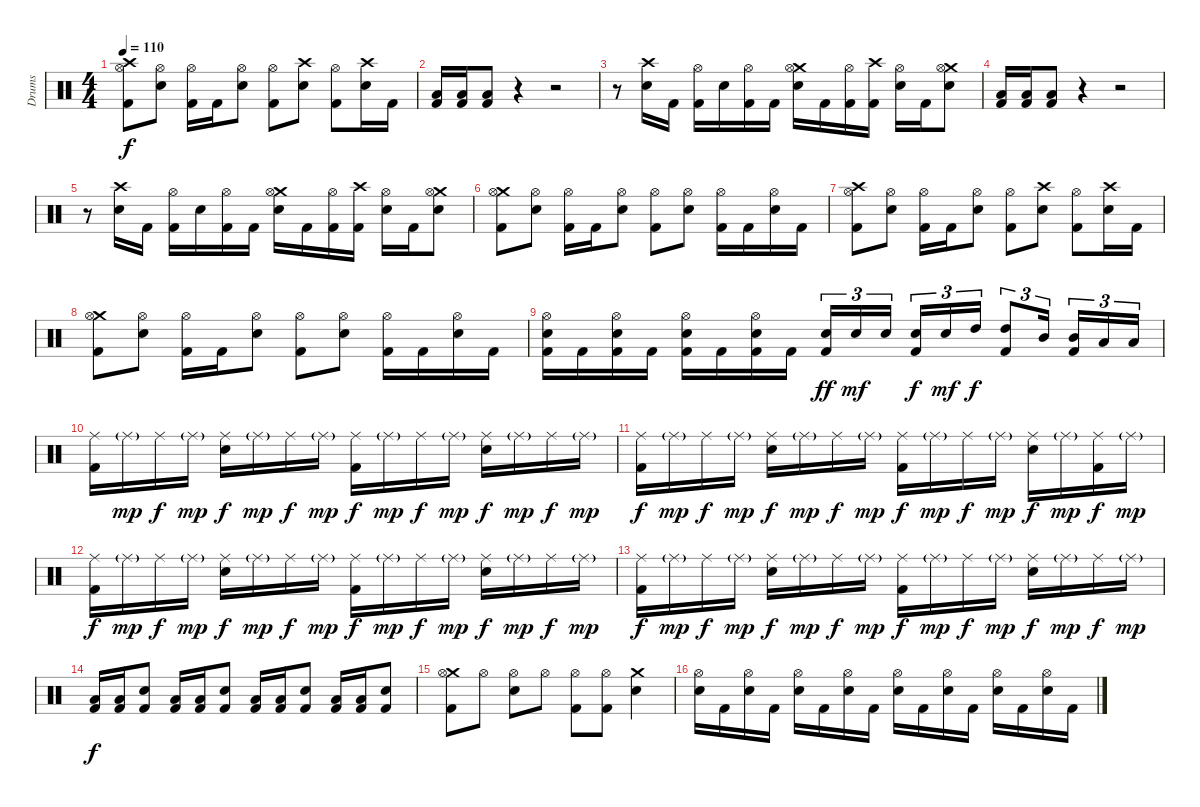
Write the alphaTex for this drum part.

\track ("Drums" "Drums") {instrument percussion}
\staff {score}
\articulation defaults
\ts (4 4)
\tempo 110
\clef neutral
\ks c
("Crash high (hit)" "Hi-Hat (open)" "Kick (hit) 2").8{dy f} ("Hi-Hat (open)" "Electric Snare (hit)").8 ("Hi-Hat (open)" "Kick (hit) 2").16 "Kick (hit) 2".16 ("Hi-Hat (open)" "Electric Snare (hit)").8 ("Hi-Hat (open)" "Kick (hit) 2").8 ("Crash high (hit)" "Electric Snare (hit)").8 ("Hi-Hat (open)" "Kick (hit) 2").8 ("Crash high (hit)" "Electric Snare (hit)").16 "Kick (hit) 2".16 |
("Low Tom (hit)" "Kick (hit) 2").16 ("Low Tom (hit)" "Kick (hit) 2").16 ("Low Tom (hit)" "Kick (hit) 2").8 r.4 r.2 |
r.8 ("Crash high (hit)" "Electric Snare (hit)").16 "Kick (hit) 2".16 ("Hi-Hat (open)" "Kick (hit) 2").16 "Electric Snare (hit)".16 ("Hi-Hat (open)" "Kick (hit) 2").16 "Kick (hit) 2".16 ("Crash medium (hit)" "Hi-Hat (open)" "Electric Snare (hit)").16 "Kick (hit) 2".16 ("Hi-Hat (open)" "Kick (hit) 2").16 ("Crash high (hit)" "Kick (hit) 2").16 ("Hi-Hat (open)" "Electric Snare (hit)").16 "Kick (hit) 2".16 ("Crash medium (hit)" "Hi-Hat (open)" "Electric Snare (hit)").8 |
("Low Tom (hit)" "Kick (hit) 2").16 ("Low Tom (hit)" "Kick (hit) 2").16 ("Low Tom (hit)" "Kick (hit) 2").8 r.4 r.2 |
r.8 ("Crash high (hit)" "Electric Snare (hit)").16 "Kick (hit) 2".16 ("Hi-Hat (open)" "Kick (hit) 2").16 "Electric Snare (hit)".16 ("Hi-Hat (open)" "Kick (hit) 2").16 "Kick (hit) 2".16 ("Crash medium (hit)" "Hi-Hat (open)" "Electric Snare (hit)").16 "Kick (hit) 2".16 ("Hi-Hat (open)" "Kick (hit) 2").16 ("Crash high (hit)" "Kick (hit) 2").16 ("Hi-Hat (open)" "Electric Snare (hit)").16 "Kick (hit) 2".16 ("Crash medium (hit)" "Hi-Hat (open)" "Electric Snare (hit)").8 |
("Crash medium (hit)" "Hi-Hat (open)" "Kick (hit) 2").8 ("Hi-Hat (open)" "Electric Snare (hit)").8 ("Hi-Hat (open)" "Kick (hit) 2").16 "Kick (hit) 2".16 ("Hi-Hat (open)" "Electric Snare (hit)").8 ("Hi-Hat (open)" "Kick (hit) 2").8 ("Hi-Hat (open)" "Electric Snare (hit)").8 ("Hi-Hat (open)" "Kick (hit) 2").16 "Kick (hit) 2".16 ("Hi-Hat (open)" "Electric Snare (hit)").16 "Kick (hit) 2".16 |
("Crash high (hit)" "Hi-Hat (open)" "Kick (hit) 2").8 ("Hi-Hat (open)" "Electric Snare (hit)").8 ("Hi-Hat (open)" "Kick (hit) 2").16 "Kick (hit) 2".16 ("Hi-Hat (open)" "Electric Snare (hit)").8 ("Hi-Hat (open)" "Kick (hit) 2").8 ("Crash high (hit)" "Electric Snare (hit)").8 ("Hi-Hat (open)" "Kick (hit) 2").8 ("Crash high (hit)" "Electric Snare (hit)").16 "Kick (hit) 2".16 |
("Crash medium (hit)" "Hi-Hat (open)" "Kick (hit) 2").8 ("Hi-Hat (open)" "Electric Snare (hit)").8 ("Hi-Hat (open)" "Kick (hit) 2").16 "Kick (hit) 2".16 ("Hi-Hat (open)" "Electric Snare (hit)").8 ("Hi-Hat (open)" "Kick (hit) 2").8 ("Hi-Hat (open)" "Electric Snare (hit)").8 ("Hi-Hat (open)" "Kick (hit) 2").16 "Kick (hit) 2".16 ("Hi-Hat (open)" "Electric Snare (hit)").16 "Kick (hit) 2".16 |
("Hi-Hat (open)" "Electric Snare (hit)" "Kick (hit) 2").16 "Kick (hit) 2".16 ("Hi-Hat (open)" "Electric Snare (hit)" "Kick (hit) 2").16 "Kick (hit) 2".16 ("Hi-Hat (open)" "Electric Snare (hit)" "Kick (hit) 2").16 "Kick (hit) 2".16 ("Hi-Hat (open)" "Electric Snare (hit)" "Kick (hit) 2").16 "Kick (hit) 2".16 ("Electric Snare (hit)" "Kick (hit) 2").16{tu (3 2) dy ff} "Electric Snare (hit)".16{tu (3 2) dy mf} "Electric Snare (hit)".16{tu (3 2)} ("Electric Snare (hit)" "Kick (hit) 2").16{tu (3 2) dy f} "Electric Snare (hit)".16{tu (3 2) dy mf} "High Tom (hit)".16{tu (3 2) dy f} ("High Tom (hit)" "Kick (hit) 2").8{tu (3 2)} "Mid Tom (hit)".16{tu (3 2)} ("Mid Tom (hit)" "Kick (hit) 2").16{tu (3 2)} "Low Tom (hit)".16{tu (3 2)} "Low Tom (hit)".16{tu (3 2)} |
("Ride (middle)" "Kick (hit) 2").16 "Ride (middle)"{g}.16{dy mp} "Ride (middle)".16{dy f} "Ride (middle)"{g}.16{dy mp} ("Ride (middle)" "Electric Snare (hit)").16{dy f} "Ride (middle)"{g}.16{dy mp} "Ride (middle)".16{dy f} "Ride (middle)"{g}.16{dy mp} ("Ride (middle)" "Kick (hit) 2").16{dy f} "Ride (middle)"{g}.16{dy mp} "Ride (middle)".16{dy f} "Ride (middle)"{g}.16{dy mp} ("Ride (middle)" "Electric Snare (hit)").16{dy f} "Ride (middle)"{g}.16{dy mp} "Ride (middle)".16{dy f} "Ride (middle)"{g}.16{dy mp} |
("Ride (middle)" "Kick (hit) 2").16{dy f} "Ride (middle)"{g}.16{dy mp} "Ride (middle)".16{dy f} "Ride (middle)"{g}.16{dy mp} ("Ride (middle)" "Electric Snare (hit)").16{dy f} "Ride (middle)"{g}.16{dy mp} "Ride (middle)".16{dy f} "Ride (middle)"{g}.16{dy mp} ("Ride (middle)" "Kick (hit) 2").16{dy f} "Ride (middle)"{g}.16{dy mp} "Ride (middle)".16{dy f} "Ride (middle)"{g}.16{dy mp} ("Ride (middle)" "Electric Snare (hit)").16{dy f} "Ride (middle)"{g}.16{dy mp} ("Ride (middle)" "Kick (hit) 2").16{dy f} "Ride (middle)"{g}.16{dy mp} |
("Ride (middle)" "Kick (hit) 2").16{dy f} "Ride (middle)"{g}.16{dy mp} "Ride (middle)".16{dy f} "Ride (middle)"{g}.16{dy mp} ("Ride (middle)" "Electric Snare (hit)").16{dy f} "Ride (middle)"{g}.16{dy mp} "Ride (middle)".16{dy f} "Ride (middle)"{g}.16{dy mp} ("Ride (middle)" "Kick (hit) 2").16{dy f} "Ride (middle)"{g}.16{dy mp} "Ride (middle)".16{dy f} "Ride (middle)"{g}.16{dy mp} ("Ride (middle)" "Electric Snare (hit)").16{dy f} "Ride (middle)"{g}.16{dy mp} "Ride (middle)".16{dy f} "Ride (middle)"{g}.16{dy mp} |
("Ride (middle)" "Kick (hit) 2").16{dy f} "Ride (middle)"{g}.16{dy mp} "Ride (middle)".16{dy f} "Ride (middle)"{g}.16{dy mp} ("Ride (middle)" "Electric Snare (hit)").16{dy f} "Ride (middle)"{g}.16{dy mp} "Ride (middle)".16{dy f} "Ride (middle)"{g}.16{dy mp} ("Ride (middle)" "Kick (hit) 2").16{dy f} "Ride (middle)"{g}.16{dy mp} "Ride (middle)".16{dy f} "Ride (middle)"{g}.16{dy mp} ("Ride (middle)" "Electric Snare (hit)").16{dy f} "Ride (middle)"{g}.16{dy mp} "Ride (middle)".16{dy f} "Ride (middle)"{g}.16{dy mp} |
("Low Floor Tom (hit)" "Kick (hit) 2").16{dy f} ("Low Floor Tom (hit)" "Kick (hit) 2").16 ("Electric Snare (hit)" "Kick (hit) 2").8 ("Low Floor Tom (hit)" "Kick (hit) 2").16 ("Low Floor Tom (hit)" "Kick (hit) 2").16 ("Electric Snare (hit)" "Kick (hit) 2").8 ("Low Floor Tom (hit)" "Kick (hit) 2").16 ("Low Floor Tom (hit)" "Kick (hit) 2").16 ("Electric Snare (hit)" "Kick (hit) 2").8 ("Low Floor Tom (hit)" "Kick (hit) 2").16 ("Low Floor Tom (hit)" "Kick (hit) 2").16 ("Electric Snare (hit)" "Kick (hit) 2").8 |
("Crash medium (hit)" "Hi-Hat (open)" "Kick (hit) 2").8 "Hi-Hat (open)".8 ("Hi-Hat (open)" "Electric Snare (hit)").8 "Hi-Hat (open)".8 ("Hi-Hat (open)" "Kick (hit) 2").8 ("Hi-Hat (open)" "Kick (hit) 2").8 ("Crash medium (hit)" "Electric Snare (hit)").4 |
("Hi-Hat (open)" "Electric Snare (hit)").16 "Kick (hit) 2".16 ("Hi-Hat (open)" "Electric Snare (hit)").16 "Kick (hit) 2".16 ("Hi-Hat (open)" "Electric Snare (hit)").16 "Kick (hit) 2".16 ("Hi-Hat (open)" "Electric Snare (hit)").16 "Kick (hit) 2".16 ("Hi-Hat (open)" "Electric Snare (hit)").16 "Kick (hit) 2".16 ("Hi-Hat (open)" "Electric Snare (hit)").16 "Kick (hit) 2".16 ("Hi-Hat (open)" "Electric Snare (hit)").16 "Kick (hit) 2".16 ("Hi-Hat (open)" "Electric Snare (hit)").16 "Kick (hit) 2".16
